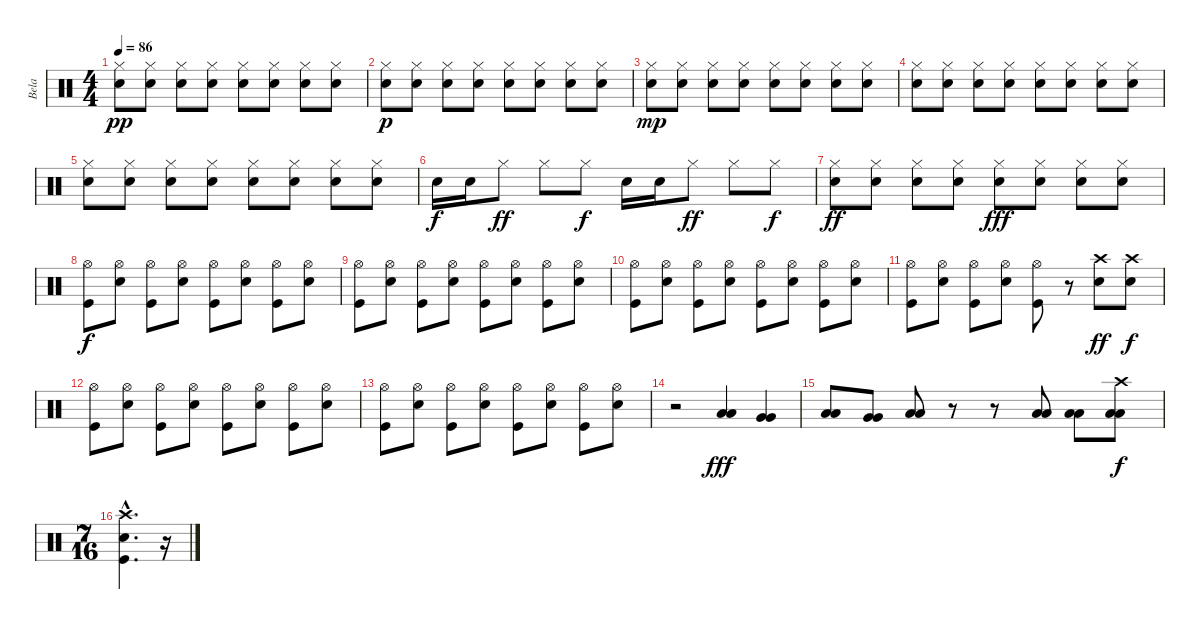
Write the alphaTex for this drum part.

\track ("Bela" "Bela") {instrument percussion}
\staff {score}
\articulation defaults
\ts (4 4)
\tempo 86
\clef neutral
\ks c
("Hi-Hat (closed)" "Snare (hit) 2").8{dy pp} ("Hi-Hat (closed)" "Snare (hit) 2").8 ("Hi-Hat (closed)" "Snare (hit) 2").8 ("Hi-Hat (closed)" "Snare (hit) 2").8 ("Hi-Hat (closed)" "Snare (hit) 2").8 ("Hi-Hat (closed)" "Snare (hit) 2").8 ("Hi-Hat (closed)" "Snare (hit) 2").8 ("Hi-Hat (closed)" "Snare (hit) 2").8 |
("Hi-Hat (closed)" "Snare (hit) 2").8{dy p} ("Hi-Hat (closed)" "Snare (hit) 2").8 ("Hi-Hat (closed)" "Snare (hit) 2").8 ("Hi-Hat (closed)" "Snare (hit) 2").8 ("Hi-Hat (closed)" "Snare (hit) 2").8 ("Hi-Hat (closed)" "Snare (hit) 2").8 ("Hi-Hat (closed)" "Snare (hit) 2").8 ("Hi-Hat (closed)" "Snare (hit) 2").8 |
("Hi-Hat (closed)" "Snare (hit) 2").8{dy mp} ("Hi-Hat (closed)" "Snare (hit) 2").8 ("Hi-Hat (closed)" "Snare (hit) 2").8 ("Hi-Hat (closed)" "Snare (hit) 2").8 ("Hi-Hat (closed)" "Snare (hit) 2").8 ("Hi-Hat (closed)" "Snare (hit) 2").8 ("Hi-Hat (closed)" "Snare (hit) 2").8 ("Hi-Hat (closed)" "Snare (hit) 2").8 |
("Hi-Hat (closed)" "Snare (hit) 2").8 ("Hi-Hat (closed)" "Snare (hit) 2").8 ("Hi-Hat (closed)" "Snare (hit) 2").8 ("Hi-Hat (closed)" "Snare (hit) 2").8 ("Hi-Hat (closed)" "Snare (hit) 2").8 ("Hi-Hat (closed)" "Snare (hit) 2").8 ("Hi-Hat (closed)" "Snare (hit) 2").8 ("Hi-Hat (closed)" "Snare (hit) 2").8 |
("Hi-Hat (closed)" "Snare (hit) 2").8 ("Hi-Hat (closed)" "Snare (hit) 2").8 ("Hi-Hat (closed)" "Snare (hit) 2").8 ("Hi-Hat (closed)" "Snare (hit) 2").8 ("Hi-Hat (closed)" "Snare (hit) 2").8 ("Hi-Hat (closed)" "Snare (hit) 2").8 ("Hi-Hat (closed)" "Snare (hit) 2").8 ("Hi-Hat (closed)" "Snare (hit) 2").8 |
"Snare (hit) 2".16{dy f} "Snare (hit) 2".16 "Hi-Hat (closed)".8{dy ff} "Hi-Hat (closed)".8 "Hi-Hat (closed)".8{dy f} "Snare (hit) 2".16 "Snare (hit) 2".16 "Hi-Hat (closed)".8{dy ff} "Hi-Hat (closed)".8 "Hi-Hat (closed)".8{dy f} |
("Hi-Hat (closed)" "Snare (hit) 2").8{dy ff} ("Hi-Hat (closed)" "Snare (hit) 2").8 ("Hi-Hat (closed)" "Snare (hit) 2").8 ("Hi-Hat (closed)" "Snare (hit) 2").8 ("Hi-Hat (closed)" "Snare (hit) 2").8{dy fff} ("Hi-Hat (closed)" "Snare (hit) 2").8 ("Hi-Hat (closed)" "Snare (hit) 2").8 ("Hi-Hat (closed)" "Snare (hit) 2").8 |
("Hi-Hat (open)" "Kick (hit)").8{dy f} ("Hi-Hat (open)" "Snare (hit) 2").8 ("Hi-Hat (open)" "Kick (hit)").8 ("Hi-Hat (open)" "Snare (hit) 2").8 ("Hi-Hat (open)" "Kick (hit)").8 ("Hi-Hat (open)" "Snare (hit) 2").8 ("Hi-Hat (open)" "Kick (hit)").8 ("Hi-Hat (open)" "Snare (hit) 2").8 |
("Hi-Hat (open)" "Kick (hit)").8 ("Hi-Hat (open)" "Snare (hit) 2").8 ("Hi-Hat (open)" "Kick (hit)").8 ("Hi-Hat (open)" "Snare (hit) 2").8 ("Hi-Hat (open)" "Kick (hit)").8 ("Hi-Hat (open)" "Snare (hit) 2").8 ("Hi-Hat (open)" "Kick (hit)").8 ("Hi-Hat (open)" "Snare (hit) 2").8 |
("Hi-Hat (open)" "Kick (hit)").8 ("Hi-Hat (open)" "Snare (hit) 2").8 ("Hi-Hat (open)" "Kick (hit)").8 ("Hi-Hat (open)" "Snare (hit) 2").8 ("Hi-Hat (open)" "Kick (hit)").8 ("Hi-Hat (open)" "Snare (hit) 2").8 ("Hi-Hat (open)" "Kick (hit)").8 ("Hi-Hat (open)" "Snare (hit) 2").8 |
("Hi-Hat (open)" "Kick (hit)").8 ("Hi-Hat (open)" "Snare (hit) 2").8 ("Hi-Hat (open)" "Kick (hit)").8 ("Hi-Hat (open)" "Snare (hit) 2").8 ("Hi-Hat (open)" "Kick (hit)").8 r.8 ("Crash high (hit)" "Snare (hit) 2").8{dy ff} ("Crash high (hit)" "Snare (hit) 2").8{dy f} |
("Hi-Hat (open)" "Kick (hit)").8 ("Hi-Hat (open)" "Snare (hit) 2").8 ("Hi-Hat (open)" "Kick (hit)").8 ("Hi-Hat (open)" "Snare (hit) 2").8 ("Hi-Hat (open)" "Kick (hit)").8 ("Hi-Hat (open)" "Snare (hit) 2").8 ("Hi-Hat (open)" "Kick (hit)").8 ("Hi-Hat (open)" "Snare (hit) 2").8 |
("Hi-Hat (open)" "Kick (hit)").8 ("Hi-Hat (open)" "Snare (hit) 2").8 ("Hi-Hat (open)" "Kick (hit)").8 ("Hi-Hat (open)" "Snare (hit) 2").8 ("Hi-Hat (open)" "Kick (hit)").8 ("Hi-Hat (open)" "Snare (hit) 2").8 ("Hi-Hat (open)" "Kick (hit)").8 ("Hi-Hat (open)" "Snare (hit) 2").8 |
r.2 ("Low Tom (hit)" "Low Tom (hit)").4{dy fff} ("Very Low Tom (hit)" "Very Low Tom (hit)").4 |
("Low Tom (hit)" "Low Tom (hit)").8 ("Very Low Tom (hit)" "Very Low Tom (hit)").8 ("Low Floor Tom (hit)" "Low Floor Tom (hit)").8 r.8 r.8 ("Low Tom (hit)" "Low Tom (hit)").8 ("Low Tom (hit)" "Low Tom (hit)").8 ("Crash high (hit)" "Low Tom (hit)" "Low Tom (hit)").8{dy f} |
\ts (7 16)
("Crash high (hit)"{hac} "Snare (hit) 2"{hac} "Kick (hit)"{hac}).4{d} r.16
